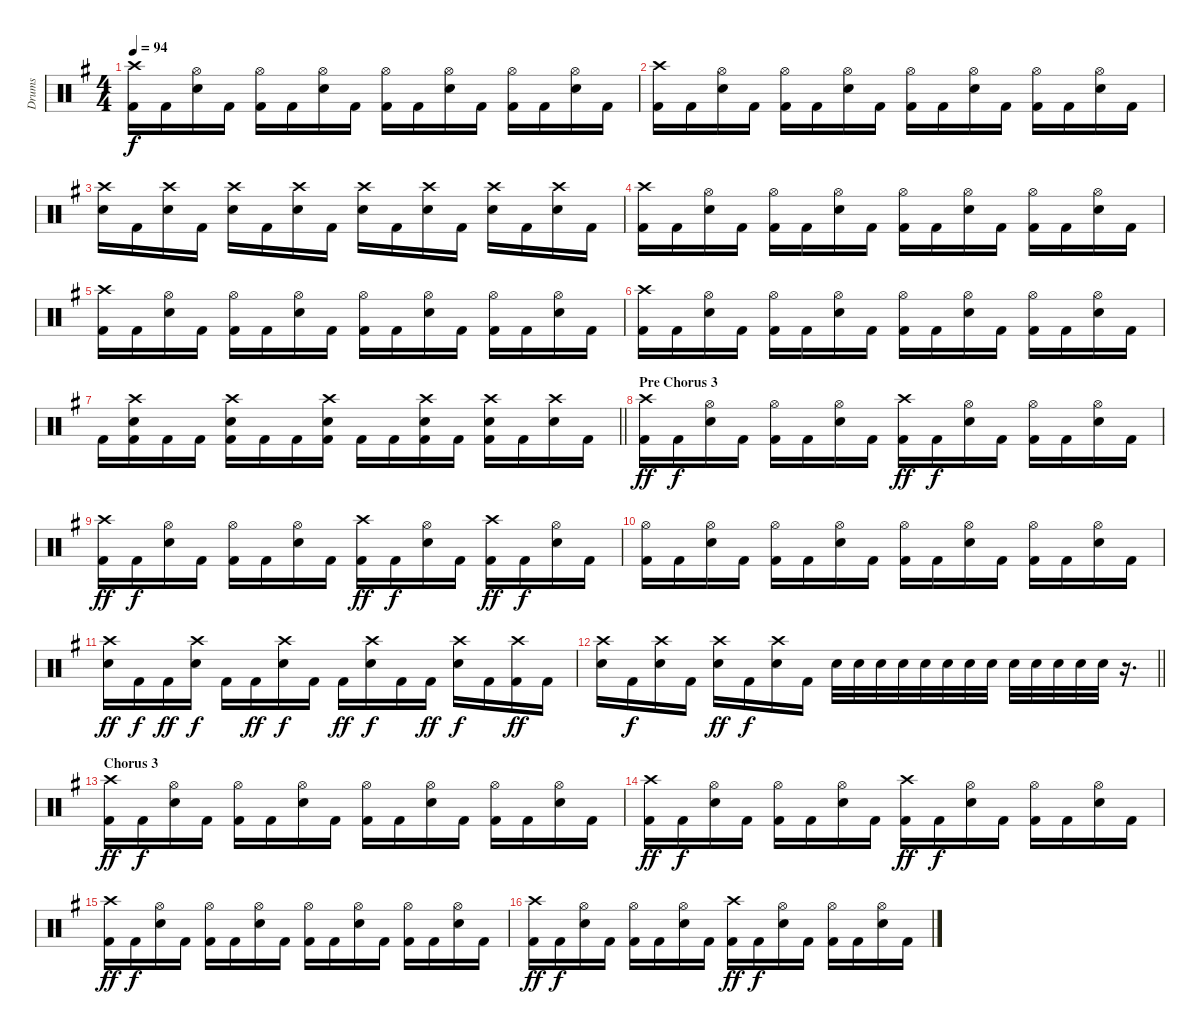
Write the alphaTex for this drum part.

\track ("Drums" "Drums") {instrument percussion}
\staff {score}
\articulation defaults
\ts (4 4)
\tempo 94
\clef neutral
\ks g
("Crash high (hit)" "Kick (hit) 2").16{dy f} "Kick (hit) 2".16 ("Hi-Hat (open)" "Snare (hit) 2").16 "Kick (hit) 2".16 ("Hi-Hat (open)" "Kick (hit) 2").16 "Kick (hit) 2".16 ("Hi-Hat (open)" "Snare (hit) 2").16 "Kick (hit) 2".16 ("Hi-Hat (open)" "Kick (hit) 2").16 "Kick (hit) 2".16 ("Hi-Hat (open)" "Snare (hit) 2").16 "Kick (hit) 2".16 ("Hi-Hat (open)" "Kick (hit) 2").16 "Kick (hit) 2".16 ("Hi-Hat (open)" "Snare (hit) 2").16 "Kick (hit) 2".16 |
("Crash high (hit)" "Kick (hit) 2").16 "Kick (hit) 2".16 ("Hi-Hat (open)" "Snare (hit) 2").16 "Kick (hit) 2".16 ("Hi-Hat (open)" "Kick (hit) 2").16 "Kick (hit) 2".16 ("Hi-Hat (open)" "Snare (hit) 2").16 "Kick (hit) 2".16 ("Hi-Hat (open)" "Kick (hit) 2").16 "Kick (hit) 2".16 ("Hi-Hat (open)" "Snare (hit) 2").16 "Kick (hit) 2".16 ("Hi-Hat (open)" "Kick (hit) 2").16 "Kick (hit) 2".16 ("Hi-Hat (open)" "Snare (hit) 2").16 "Kick (hit) 2".16 |
("Crash high (hit)" "Snare (hit) 2").16 "Kick (hit) 2".16 ("Crash high (hit)" "Snare (hit) 2").16 "Kick (hit) 2".16 ("Crash high (hit)" "Snare (hit) 2").16 "Kick (hit) 2".16 ("Crash high (hit)" "Snare (hit) 2").16 "Kick (hit) 2".16 ("Crash high (hit)" "Snare (hit) 2").16 "Kick (hit) 2".16 ("Crash high (hit)" "Snare (hit) 2").16 "Kick (hit) 2".16 ("Crash high (hit)" "Snare (hit) 2").16 "Kick (hit) 2".16 ("Crash high (hit)" "Snare (hit) 2").16 "Kick (hit) 2".16 |
("Crash high (hit)" "Kick (hit) 2").16 "Kick (hit) 2".16 ("Hi-Hat (open)" "Snare (hit) 2").16 "Kick (hit) 2".16 ("Hi-Hat (open)" "Kick (hit) 2").16 "Kick (hit) 2".16 ("Hi-Hat (open)" "Snare (hit) 2").16 "Kick (hit) 2".16 ("Hi-Hat (open)" "Kick (hit) 2").16 "Kick (hit) 2".16 ("Hi-Hat (open)" "Snare (hit) 2").16 "Kick (hit) 2".16 ("Hi-Hat (open)" "Kick (hit) 2").16 "Kick (hit) 2".16 ("Hi-Hat (open)" "Snare (hit) 2").16 "Kick (hit) 2".16 |
("Crash high (hit)" "Kick (hit) 2").16 "Kick (hit) 2".16 ("Hi-Hat (open)" "Snare (hit) 2").16 "Kick (hit) 2".16 ("Hi-Hat (open)" "Kick (hit) 2").16 "Kick (hit) 2".16 ("Hi-Hat (open)" "Snare (hit) 2").16 "Kick (hit) 2".16 ("Hi-Hat (open)" "Kick (hit) 2").16 "Kick (hit) 2".16 ("Hi-Hat (open)" "Snare (hit) 2").16 "Kick (hit) 2".16 ("Hi-Hat (open)" "Kick (hit) 2").16 "Kick (hit) 2".16 ("Hi-Hat (open)" "Snare (hit) 2").16 "Kick (hit) 2".16 |
("Crash high (hit)" "Kick (hit) 2").16 "Kick (hit) 2".16 ("Hi-Hat (open)" "Snare (hit) 2").16 "Kick (hit) 2".16 ("Hi-Hat (open)" "Kick (hit) 2").16 "Kick (hit) 2".16 ("Hi-Hat (open)" "Snare (hit) 2").16 "Kick (hit) 2".16 ("Hi-Hat (open)" "Kick (hit) 2").16 "Kick (hit) 2".16 ("Hi-Hat (open)" "Snare (hit) 2").16 "Kick (hit) 2".16 ("Hi-Hat (open)" "Kick (hit) 2").16 "Kick (hit) 2".16 ("Hi-Hat (open)" "Snare (hit) 2").16 "Kick (hit) 2".16 |
\barLineRight lightlight "Kick (hit) 2".16
("Crash high (hit)" "Snare (hit) 2" "Kick (hit) 2").16 "Kick (hit) 2".16 "Kick (hit) 2".16 ("Crash high (hit)" "Snare (hit) 2" "Kick (hit) 2").16 "Kick (hit) 2".16 "Kick (hit) 2".16 ("Crash high (hit)" "Snare (hit) 2" "Kick (hit) 2").16 "Kick (hit) 2".16 "Kick (hit) 2".16 ("Crash high (hit)" "Snare (hit) 2" "Kick (hit) 2").16 "Kick (hit) 2".16 ("Crash high (hit)" "Snare (hit) 2" "Kick (hit) 2").16 "Kick (hit) 2".16 ("Crash high (hit)" "Snare (hit) 2").16 "Kick (hit) 2".16 |
\section ("" "Pre Chorus 3")
("Crash high (hit)" "Kick (hit) 2").16{dy ff} "Kick (hit) 2".16{dy f} ("Hi-Hat (open)" "Snare (hit) 2").16 "Kick (hit) 2".16 ("Hi-Hat (open)" "Kick (hit) 2").16 "Kick (hit) 2".16 ("Hi-Hat (open)" "Snare (hit) 2").16 "Kick (hit) 2".16 ("Crash high (hit)" "Kick (hit) 2").16{dy ff} "Kick (hit) 2".16{dy f} ("Hi-Hat (open)" "Snare (hit) 2").16 "Kick (hit) 2".16 ("Hi-Hat (open)" "Kick (hit) 2").16 "Kick (hit) 2".16 ("Hi-Hat (open)" "Snare (hit) 2").16 "Kick (hit) 2".16 |
("Crash high (hit)" "Kick (hit) 2").16{dy ff} "Kick (hit) 2".16{dy f} ("Hi-Hat (open)" "Snare (hit) 2").16 "Kick (hit) 2".16 ("Hi-Hat (open)" "Kick (hit) 2").16 "Kick (hit) 2".16 ("Hi-Hat (open)" "Snare (hit) 2").16 "Kick (hit) 2".16 ("Crash high (hit)" "Kick (hit) 2").16{dy ff} "Kick (hit) 2".16{dy f} ("Hi-Hat (open)" "Snare (hit) 2").16 "Kick (hit) 2".16 ("Crash high (hit)" "Kick (hit) 2").16{dy ff} "Kick (hit) 2".16{dy f} ("Hi-Hat (open)" "Snare (hit) 2").16 "Kick (hit) 2".16 |
("Hi-Hat (open)" "Kick (hit) 2").16 "Kick (hit) 2".16 ("Hi-Hat (open)" "Snare (hit) 2").16 "Kick (hit) 2".16 ("Hi-Hat (open)" "Kick (hit) 2").16 "Kick (hit) 2".16 ("Hi-Hat (open)" "Snare (hit) 2").16 "Kick (hit) 2".16 ("Hi-Hat (open)" "Kick (hit) 2").16 "Kick (hit) 2".16 ("Hi-Hat (open)" "Snare (hit) 2").16 "Kick (hit) 2".16 ("Hi-Hat (open)" "Kick (hit) 2").16 "Kick (hit) 2".16 ("Hi-Hat (open)" "Snare (hit) 2").16 "Kick (hit) 2".16 |
("Crash high (hit)" "Snare (hit) 2").16{dy ff} "Kick (hit) 2".16{dy f} "Kick (hit) 2".16{dy ff} ("Crash high (hit)" "Snare (hit) 2").16{dy f} "Kick (hit) 2".16 "Kick (hit) 2".16{dy ff} ("Crash high (hit)" "Snare (hit) 2").16{dy f} "Kick (hit) 2".16 "Kick (hit) 2".16{dy ff} ("Crash high (hit)" "Snare (hit) 2").16{dy f} "Kick (hit) 2".16 "Kick (hit) 2".16{dy ff} ("Crash high (hit)" "Snare (hit) 2").16{dy f} "Kick (hit) 2".16 ("Crash high (hit)" "Kick (hit) 2").16{dy ff} "Kick (hit) 2".16 |
\barLineRight lightlight
("Crash high (hit)" "Snare (hit) 2").16 "Kick (hit) 2".16{dy f} ("Crash high (hit)" "Snare (hit) 2").16 "Kick (hit) 2".16 ("Crash high (hit)" "Snare (hit) 2").16{dy ff} "Kick (hit) 2".16{dy f} ("Crash high (hit)" "Snare (hit) 2").16 "Kick (hit) 2".16 "Snare (hit) 2".32 "Snare (hit) 2".32 "Snare (hit) 2".32 "Snare (hit) 2".32 "Snare (hit) 2".32 "Snare (hit) 2".32 "Snare (hit) 2".32 "Snare (hit) 2".32 "Snare (hit) 2".32 "Snare (hit) 2".32 "Snare (hit) 2".32 "Snare (hit) 2".32 "Snare (hit) 2".32 r.16{d} |
\section ("" "Chorus 3")
("Crash high (hit)" "Kick (hit) 2").16{dy ff} "Kick (hit) 2".16{dy f} ("Hi-Hat (open)" "Snare (hit) 2").16 "Kick (hit) 2".16 ("Hi-Hat (open)" "Kick (hit) 2").16 "Kick (hit) 2".16 ("Hi-Hat (open)" "Snare (hit) 2").16 "Kick (hit) 2".16 ("Hi-Hat (open)" "Kick (hit) 2").16 "Kick (hit) 2".16 ("Hi-Hat (open)" "Snare (hit) 2").16 "Kick (hit) 2".16 ("Hi-Hat (open)" "Kick (hit) 2").16 "Kick (hit) 2".16 ("Hi-Hat (open)" "Snare (hit) 2").16 "Kick (hit) 2".16 |
("Crash high (hit)" "Kick (hit) 2").16{dy ff} "Kick (hit) 2".16{dy f} ("Hi-Hat (open)" "Snare (hit) 2").16 "Kick (hit) 2".16 ("Hi-Hat (open)" "Kick (hit) 2").16 "Kick (hit) 2".16 ("Hi-Hat (open)" "Snare (hit) 2").16 "Kick (hit) 2".16 ("Crash high (hit)" "Kick (hit) 2").16{dy ff} "Kick (hit) 2".16{dy f} ("Hi-Hat (open)" "Snare (hit) 2").16 "Kick (hit) 2".16 ("Hi-Hat (open)" "Kick (hit) 2").16 "Kick (hit) 2".16 ("Hi-Hat (open)" "Snare (hit) 2").16 "Kick (hit) 2".16 |
("Crash high (hit)" "Kick (hit) 2").16{dy ff} "Kick (hit) 2".16{dy f} ("Hi-Hat (open)" "Snare (hit) 2").16 "Kick (hit) 2".16 ("Hi-Hat (open)" "Kick (hit) 2").16 "Kick (hit) 2".16 ("Hi-Hat (open)" "Snare (hit) 2").16 "Kick (hit) 2".16 ("Hi-Hat (open)" "Kick (hit) 2").16 "Kick (hit) 2".16 ("Hi-Hat (open)" "Snare (hit) 2").16 "Kick (hit) 2".16 ("Hi-Hat (open)" "Kick (hit) 2").16 "Kick (hit) 2".16 ("Hi-Hat (open)" "Snare (hit) 2").16 "Kick (hit) 2".16 |
("Crash high (hit)" "Kick (hit) 2").16{dy ff} "Kick (hit) 2".16{dy f} ("Hi-Hat (open)" "Snare (hit) 2").16 "Kick (hit) 2".16 ("Hi-Hat (open)" "Kick (hit) 2").16 "Kick (hit) 2".16 ("Hi-Hat (open)" "Snare (hit) 2").16 "Kick (hit) 2".16 ("Crash high (hit)" "Kick (hit) 2").16{dy ff} "Kick (hit) 2".16{dy f} ("Hi-Hat (open)" "Snare (hit) 2").16 "Kick (hit) 2".16 ("Hi-Hat (open)" "Kick (hit) 2").16 "Kick (hit) 2".16 ("Hi-Hat (open)" "Snare (hit) 2").16 "Kick (hit) 2".16
